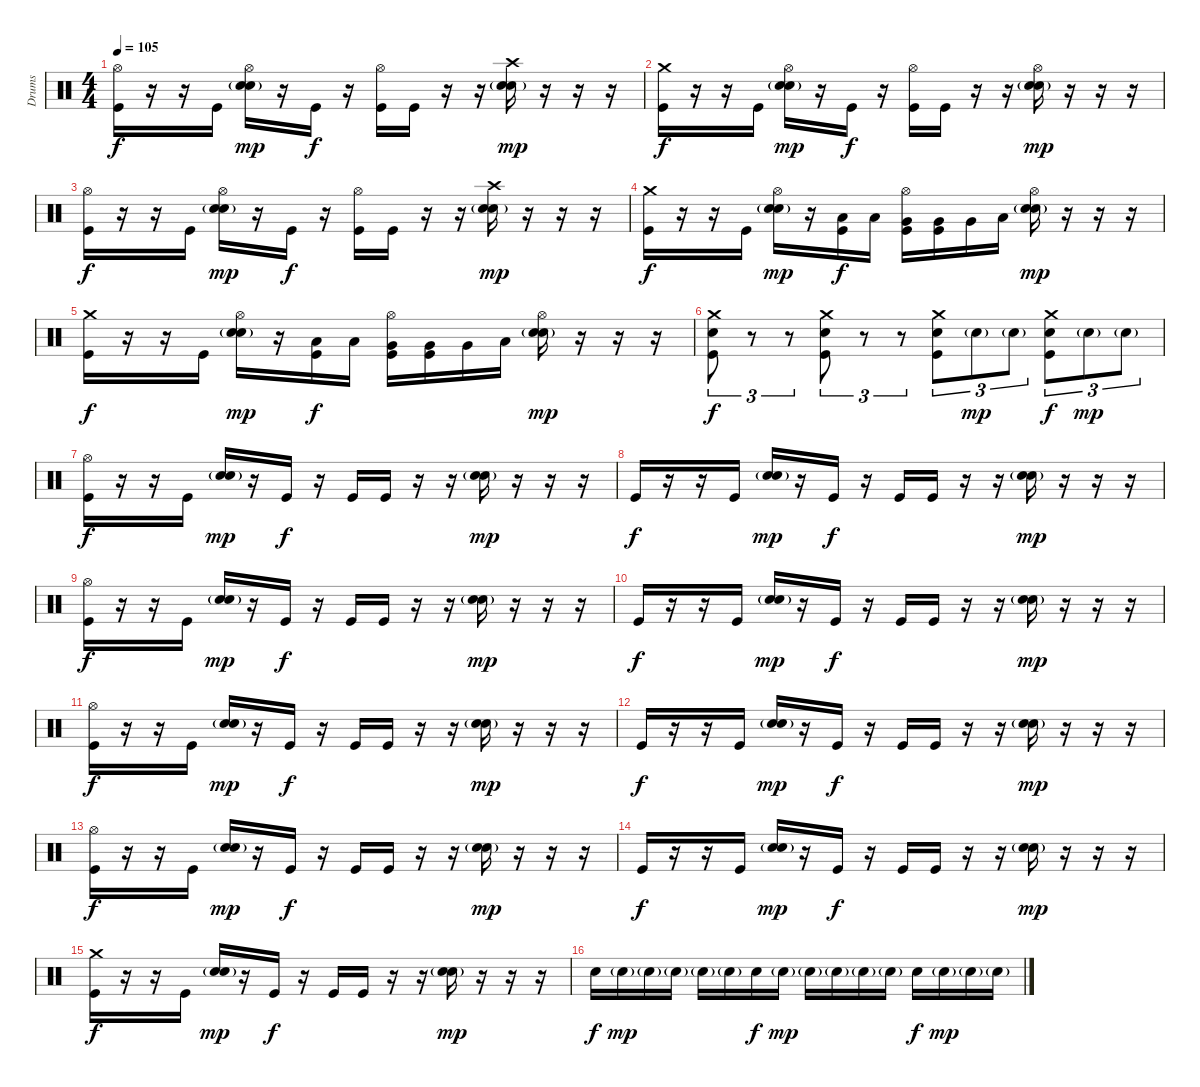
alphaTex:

\track ("Drums" "Drums") {instrument percussion}
\staff {score}
\articulation defaults
\ts (4 4)
\tempo 105
\clef neutral
\ks c
("Hi-Hat (open)" "Kick (hit)").16{dy f} r.16 r.16 "Kick (hit)".16 ("Hi-Hat (open)" "Snare (hit) 2"{g} "Snare (hit) 2").16{dy mp} r.16 "Kick (hit)".16{dy f} r.16 ("Hi-Hat (open)" "Kick (hit)").16 "Kick (hit)".16 r.16 r.16 ("Crash high (hit)" "Snare (hit) 2"{g} "Snare (hit) 2").16{dy mp} r.16 r.16 r.16 |
("Crash medium (hit)" "Kick (hit)").16{dy f} r.16 r.16 "Kick (hit)".16 ("Hi-Hat (open)" "Snare (hit) 2"{g} "Snare (hit) 2").16{dy mp} r.16 "Kick (hit)".16{dy f} r.16 ("Hi-Hat (open)" "Kick (hit)").16 "Kick (hit)".16 r.16 r.16 ("Hi-Hat (open)" "Snare (hit) 2"{g} "Snare (hit) 2").16{dy mp} r.16 r.16 r.16 |
("Hi-Hat (open)" "Kick (hit)").16{dy f} r.16 r.16 "Kick (hit)".16 ("Hi-Hat (open)" "Snare (hit) 2"{g} "Snare (hit) 2").16{dy mp} r.16 "Kick (hit)".16{dy f} r.16 ("Hi-Hat (open)" "Kick (hit)").16 "Kick (hit)".16 r.16 r.16 ("Crash high (hit)" "Snare (hit) 2"{g} "Snare (hit) 2").16{dy mp} r.16 r.16 r.16 |
("Crash medium (hit)" "Kick (hit)").16{dy f} r.16 r.16 "Kick (hit)".16 ("Hi-Hat (open)" "Snare (hit) 2"{g} "Snare (hit) 2").16{dy mp} r.16 ("Low Tom (hit)" "Kick (hit)").16{dy f} "Low Tom (hit)".16 ("Hi-Hat (open)" "Very Low Tom (hit)" "Kick (hit)").16 ("Very Low Tom (hit)" "Kick (hit)").16 "Very Low Tom (hit)".16 "Low Tom (hit)".16 ("Hi-Hat (open)" "Snare (hit) 2"{g} "Snare (hit) 2").16{dy mp} r.16 r.16 r.16 |
("Crash medium (hit)" "Kick (hit)").16{dy f} r.16 r.16 "Kick (hit)".16 ("Hi-Hat (open)" "Snare (hit) 2"{g} "Snare (hit) 2").16{dy mp} r.16 ("Low Tom (hit)" "Kick (hit)").16{dy f} "Low Tom (hit)".16 ("Hi-Hat (open)" "Very Low Tom (hit)" "Kick (hit)").16 ("Very Low Tom (hit)" "Kick (hit)").16 "Very Low Tom (hit)".16 "Low Tom (hit)".16 ("Hi-Hat (open)" "Snare (hit) 2"{g} "Snare (hit) 2").16{dy mp} r.16 r.16 r.16 |
("Crash medium (hit)" "Snare (hit) 2" "Kick (hit)").8{tu (3 2) dy f} r.8{tu (3 2)} r.8{tu (3 2)} ("Crash medium (hit)" "Snare (hit) 2" "Kick (hit)").8{tu (3 2)} r.8{tu (3 2)} r.8{tu (3 2)} ("Crash medium (hit)" "Snare (hit) 2" "Kick (hit)").8{tu (3 2)} "Snare (hit) 2"{g}.8{tu (3 2) dy mp} "Snare (hit) 2"{g}.8{tu (3 2)} ("Crash medium (hit)" "Snare (hit) 2" "Kick (hit)").8{tu (3 2) dy f} "Snare (hit) 2"{g}.8{tu (3 2) dy mp} "Snare (hit) 2"{g}.8{tu (3 2)} |
("Hi-Hat (open)" "Kick (hit)").16{dy f} r.16 r.16 "Kick (hit)".16 ("Snare (hit) 2"{g} "Snare (hit) 2").16{dy mp} r.16 "Kick (hit)".16{dy f} r.16 "Kick (hit)".16 "Kick (hit)".16 r.16 r.16 ("Snare (hit) 2"{g} "Snare (hit) 2").16{dy mp} r.16 r.16 r.16 |
"Kick (hit)".16{dy f} r.16 r.16 "Kick (hit)".16 ("Snare (hit) 2"{g} "Snare (hit) 2").16{dy mp} r.16 "Kick (hit)".16{dy f} r.16 "Kick (hit)".16 "Kick (hit)".16 r.16 r.16 ("Snare (hit) 2"{g} "Snare (hit) 2").16{dy mp} r.16 r.16 r.16 |
("Hi-Hat (open)" "Kick (hit)").16{dy f} r.16 r.16 "Kick (hit)".16 ("Snare (hit) 2"{g} "Snare (hit) 2").16{dy mp} r.16 "Kick (hit)".16{dy f} r.16 "Kick (hit)".16 "Kick (hit)".16 r.16 r.16 ("Snare (hit) 2"{g} "Snare (hit) 2").16{dy mp} r.16 r.16 r.16 |
"Kick (hit)".16{dy f} r.16 r.16 "Kick (hit)".16 ("Snare (hit) 2"{g} "Snare (hit) 2").16{dy mp} r.16 "Kick (hit)".16{dy f} r.16 "Kick (hit)".16 "Kick (hit)".16 r.16 r.16 ("Snare (hit) 2"{g} "Snare (hit) 2").16{dy mp} r.16 r.16 r.16 |
("Hi-Hat (open)" "Kick (hit)").16{dy f} r.16 r.16 "Kick (hit)".16 ("Snare (hit) 2"{g} "Snare (hit) 2").16{dy mp} r.16 "Kick (hit)".16{dy f} r.16 "Kick (hit)".16 "Kick (hit)".16 r.16 r.16 ("Snare (hit) 2"{g} "Snare (hit) 2").16{dy mp} r.16 r.16 r.16 |
"Kick (hit)".16{dy f} r.16 r.16 "Kick (hit)".16 ("Snare (hit) 2"{g} "Snare (hit) 2").16{dy mp} r.16 "Kick (hit)".16{dy f} r.16 "Kick (hit)".16 "Kick (hit)".16 r.16 r.16 ("Snare (hit) 2"{g} "Snare (hit) 2").16{dy mp} r.16 r.16 r.16 |
("Hi-Hat (open)" "Kick (hit)").16{dy f} r.16 r.16 "Kick (hit)".16 ("Snare (hit) 2"{g} "Snare (hit) 2").16{dy mp} r.16 "Kick (hit)".16{dy f} r.16 "Kick (hit)".16 "Kick (hit)".16 r.16 r.16 ("Snare (hit) 2"{g} "Snare (hit) 2").16{dy mp} r.16 r.16 r.16 |
"Kick (hit)".16{dy f} r.16 r.16 "Kick (hit)".16 ("Snare (hit) 2"{g} "Snare (hit) 2").16{dy mp} r.16 "Kick (hit)".16{dy f} r.16 "Kick (hit)".16 "Kick (hit)".16 r.16 r.16 ("Snare (hit) 2"{g} "Snare (hit) 2").16{dy mp} r.16 r.16 r.16 |
("Crash medium (hit)" "Kick (hit)").16{dy f} r.16 r.16 "Kick (hit)".16 ("Snare (hit) 2"{g} "Snare (hit) 2").16{dy mp} r.16 "Kick (hit)".16{dy f} r.16 "Kick (hit)".16 "Kick (hit)".16 r.16 r.16 ("Snare (hit) 2"{g} "Snare (hit) 2").16{dy mp} r.16 r.16 r.16 |
"Snare (hit) 2".16{dy f} "Snare (hit) 2"{g}.16{dy mp} "Snare (hit) 2"{g}.16 "Snare (hit) 2"{g}.16 "Snare (hit) 2"{g}.16 "Snare (hit) 2"{g}.16 "Snare (hit) 2".16{dy f} "Snare (hit) 2"{g}.16{dy mp} "Snare (hit) 2"{g}.16 "Snare (hit) 2"{g}.16 "Snare (hit) 2"{g}.16 "Snare (hit) 2"{g}.16 "Snare (hit) 2".16{dy f} "Snare (hit) 2"{g}.16{dy mp} "Snare (hit) 2"{g}.16 "Snare (hit) 2"{g}.16
